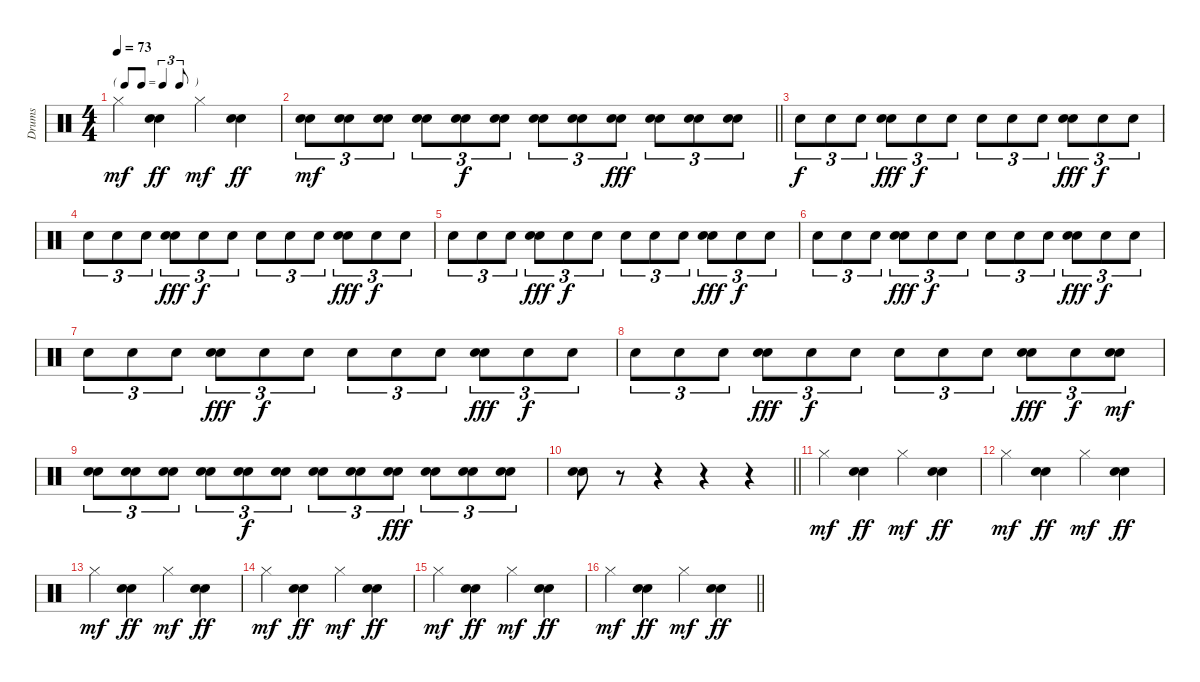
\track ("Drums" "Drums") {instrument percussion}
\staff {score}
\articulation defaults
\ts (4 4)
\tf triplet8th
\tempo 73
\clef neutral
\ks c "Hi-Hat (closed)".4{dy mf}
("Snare (hit) 2" "Hand Clap (hit)").4{dy ff} "Hi-Hat (closed)".4{dy mf} ("Snare (hit) 2" "Hand Clap (hit)").4{dy ff} |
\barLineRight lightlight
("Snare (hit) 2" "Hand Clap (hit)").8{tu (3 2) dy mf} ("Snare (hit) 2" "Hand Clap (hit)").8{tu (3 2)} ("Snare (hit) 2" "Hand Clap (hit)").8{tu (3 2)} ("Snare (hit) 2" "Hand Clap (hit)").8{tu (3 2)} ("Snare (hit) 2" "Hand Clap (hit)").8{tu (3 2) dy f} ("Snare (hit) 2" "Hand Clap (hit)").8{tu (3 2)} ("Snare (hit) 2" "Hand Clap (hit)").8{tu (3 2)} ("Snare (hit) 2" "Hand Clap (hit)").8{tu (3 2)} ("Snare (hit) 2" "Hand Clap (hit)").8{tu (3 2) dy fff} ("Snare (hit) 2" "Hand Clap (hit)").8{tu (3 2)} ("Snare (hit) 2" "Hand Clap (hit)").8{tu (3 2)} ("Snare (hit) 2" "Hand Clap (hit)").8{tu (3 2)} |
\section ("" "")
"Snare (hit) 2".8{tu (3 2) dy f} "Snare (hit) 2".8{tu (3 2)} "Snare (hit) 2".8{tu (3 2)} ("Snare (hit) 2" "Hand Clap (hit)").8{tu (3 2) dy fff} "Snare (hit) 2".8{tu (3 2) dy f} "Snare (hit) 2".8{tu (3 2)} "Snare (hit) 2".8{tu (3 2)} "Snare (hit) 2".8{tu (3 2)} "Snare (hit) 2".8{tu (3 2)} ("Snare (hit) 2" "Hand Clap (hit)").8{tu (3 2) dy fff} "Snare (hit) 2".8{tu (3 2) dy f} "Snare (hit) 2".8{tu (3 2)} |
"Snare (hit) 2".8{tu (3 2)} "Snare (hit) 2".8{tu (3 2)} "Snare (hit) 2".8{tu (3 2)} ("Snare (hit) 2" "Hand Clap (hit)").8{tu (3 2) dy fff} "Snare (hit) 2".8{tu (3 2) dy f} "Snare (hit) 2".8{tu (3 2)} "Snare (hit) 2".8{tu (3 2)} "Snare (hit) 2".8{tu (3 2)} "Snare (hit) 2".8{tu (3 2)} ("Snare (hit) 2" "Hand Clap (hit)").8{tu (3 2) dy fff} "Snare (hit) 2".8{tu (3 2) dy f} "Snare (hit) 2".8{tu (3 2)} |
"Snare (hit) 2".8{tu (3 2)} "Snare (hit) 2".8{tu (3 2)} "Snare (hit) 2".8{tu (3 2)} ("Snare (hit) 2" "Hand Clap (hit)").8{tu (3 2) dy fff} "Snare (hit) 2".8{tu (3 2) dy f} "Snare (hit) 2".8{tu (3 2)} "Snare (hit) 2".8{tu (3 2)} "Snare (hit) 2".8{tu (3 2)} "Snare (hit) 2".8{tu (3 2)} ("Snare (hit) 2" "Hand Clap (hit)").8{tu (3 2) dy fff} "Snare (hit) 2".8{tu (3 2) dy f} "Snare (hit) 2".8{tu (3 2)} |
"Snare (hit) 2".8{tu (3 2)} "Snare (hit) 2".8{tu (3 2)} "Snare (hit) 2".8{tu (3 2)} ("Snare (hit) 2" "Hand Clap (hit)").8{tu (3 2) dy fff} "Snare (hit) 2".8{tu (3 2) dy f} "Snare (hit) 2".8{tu (3 2)} "Snare (hit) 2".8{tu (3 2)} "Snare (hit) 2".8{tu (3 2)} "Snare (hit) 2".8{tu (3 2)} ("Snare (hit) 2" "Hand Clap (hit)").8{tu (3 2) dy fff} "Snare (hit) 2".8{tu (3 2) dy f} "Snare (hit) 2".8{tu (3 2)} |
"Snare (hit) 2".8{tu (3 2)} "Snare (hit) 2".8{tu (3 2)} "Snare (hit) 2".8{tu (3 2)} ("Snare (hit) 2" "Hand Clap (hit)").8{tu (3 2) dy fff} "Snare (hit) 2".8{tu (3 2) dy f} "Snare (hit) 2".8{tu (3 2)} "Snare (hit) 2".8{tu (3 2)} "Snare (hit) 2".8{tu (3 2)} "Snare (hit) 2".8{tu (3 2)} ("Snare (hit) 2" "Hand Clap (hit)").8{tu (3 2) dy fff} "Snare (hit) 2".8{tu (3 2) dy f} "Snare (hit) 2".8{tu (3 2)} |
"Snare (hit) 2".8{tu (3 2)} "Snare (hit) 2".8{tu (3 2)} "Snare (hit) 2".8{tu (3 2)} ("Snare (hit) 2" "Hand Clap (hit)").8{tu (3 2) dy fff} "Snare (hit) 2".8{tu (3 2) dy f} "Snare (hit) 2".8{tu (3 2)} "Snare (hit) 2".8{tu (3 2)} "Snare (hit) 2".8{tu (3 2)} "Snare (hit) 2".8{tu (3 2)} ("Snare (hit) 2" "Hand Clap (hit)").8{tu (3 2) dy fff} "Snare (hit) 2".8{tu (3 2) dy f} ("Snare (hit) 2" "Hand Clap (hit)").8{tu (3 2) dy mf} |
("Snare (hit) 2" "Hand Clap (hit)").8{tu (3 2)} ("Snare (hit) 2" "Hand Clap (hit)").8{tu (3 2)} ("Snare (hit) 2" "Hand Clap (hit)").8{tu (3 2)} ("Snare (hit) 2" "Hand Clap (hit)").8{tu (3 2)} ("Snare (hit) 2" "Hand Clap (hit)").8{tu (3 2) dy f} ("Snare (hit) 2" "Hand Clap (hit)").8{tu (3 2)} ("Snare (hit) 2" "Hand Clap (hit)").8{tu (3 2)} ("Snare (hit) 2" "Hand Clap (hit)").8{tu (3 2)} ("Snare (hit) 2" "Hand Clap (hit)").8{tu (3 2) dy fff} ("Snare (hit) 2" "Hand Clap (hit)").8{tu (3 2)} ("Snare (hit) 2" "Hand Clap (hit)").8{tu (3 2)} ("Snare (hit) 2" "Hand Clap (hit)").8{tu (3 2)} |
\barLineRight lightlight
("Snare (hit) 2" "Hand Clap (hit)").8 r.8 r.4 r.4 r.4 |
\section ("" "")
"Hi-Hat (closed)".4{dy mf} ("Snare (hit) 2" "Hand Clap (hit)").4{dy ff} "Hi-Hat (closed)".4{dy mf} ("Snare (hit) 2" "Hand Clap (hit)").4{dy ff} |
"Hi-Hat (closed)".4{dy mf} ("Snare (hit) 2" "Hand Clap (hit)").4{dy ff} "Hi-Hat (closed)".4{dy mf} ("Snare (hit) 2" "Hand Clap (hit)").4{dy ff} |
"Hi-Hat (closed)".4{dy mf} ("Snare (hit) 2" "Hand Clap (hit)").4{dy ff} "Hi-Hat (closed)".4{dy mf} ("Snare (hit) 2" "Hand Clap (hit)").4{dy ff} |
"Hi-Hat (closed)".4{dy mf} ("Snare (hit) 2" "Hand Clap (hit)").4{dy ff} "Hi-Hat (closed)".4{dy mf} ("Snare (hit) 2" "Hand Clap (hit)").4{dy ff} |
"Hi-Hat (closed)".4{dy mf} ("Snare (hit) 2" "Hand Clap (hit)").4{dy ff} "Hi-Hat (closed)".4{dy mf} ("Snare (hit) 2" "Hand Clap (hit)").4{dy ff} |
\barLineRight lightlight "Hi-Hat (closed)".4{dy mf}
("Snare (hit) 2" "Hand Clap (hit)").4{dy ff} "Hi-Hat (closed)".4{dy mf} ("Snare (hit) 2" "Hand Clap (hit)").4{dy ff}
